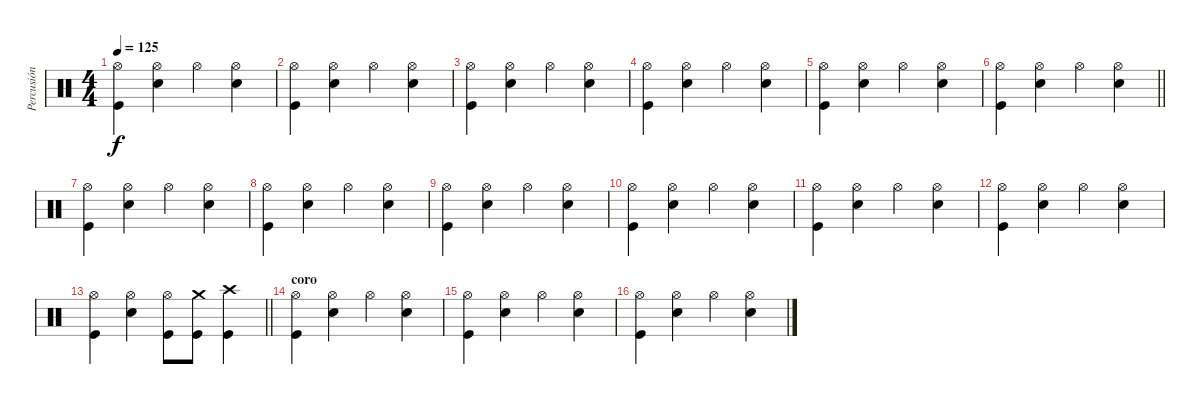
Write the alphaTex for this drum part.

\track ("Percusión" "Percusión") {instrument percussion}
\staff {score}
\articulation defaults
\ts (4 4)
\tempo 125
\clef neutral
\ks c
("Hi-Hat (open)" "Kick (hit)").4{dy f} ("Hi-Hat (open)" "Electric Snare (hit)").4 "Hi-Hat (open)".4 ("Hi-Hat (open)" "Electric Snare (hit)").4 |
("Hi-Hat (open)" "Kick (hit)").4 ("Hi-Hat (open)" "Electric Snare (hit)").4 "Hi-Hat (open)".4 ("Hi-Hat (open)" "Electric Snare (hit)").4 |
("Hi-Hat (open)" "Kick (hit)").4{volume 12} ("Hi-Hat (open)" "Electric Snare (hit)").4 "Hi-Hat (open)".4 ("Hi-Hat (open)" "Electric Snare (hit)").4 |
("Hi-Hat (open)" "Kick (hit)").4 ("Hi-Hat (open)" "Electric Snare (hit)").4 "Hi-Hat (open)".4 ("Hi-Hat (open)" "Electric Snare (hit)").4 |
("Hi-Hat (open)" "Kick (hit)").4 ("Hi-Hat (open)" "Electric Snare (hit)").4 "Hi-Hat (open)".4 ("Hi-Hat (open)" "Electric Snare (hit)").4 |
\barLineRight lightlight
("Hi-Hat (open)" "Kick (hit)").4 ("Hi-Hat (open)" "Electric Snare (hit)").4 "Hi-Hat (open)".4 ("Hi-Hat (open)" "Electric Snare (hit)").4 |
("Hi-Hat (open)" "Kick (hit)").4{volume 12} ("Hi-Hat (open)" "Electric Snare (hit)").4 "Hi-Hat (open)".4 ("Hi-Hat (open)" "Electric Snare (hit)").4 |
("Hi-Hat (open)" "Kick (hit)").4 ("Hi-Hat (open)" "Electric Snare (hit)").4 "Hi-Hat (open)".4 ("Hi-Hat (open)" "Electric Snare (hit)").4 |
("Hi-Hat (open)" "Kick (hit)").4 ("Hi-Hat (open)" "Electric Snare (hit)").4 "Hi-Hat (open)".4 ("Hi-Hat (open)" "Electric Snare (hit)").4 |
("Hi-Hat (open)" "Kick (hit)").4 ("Hi-Hat (open)" "Electric Snare (hit)").4 "Hi-Hat (open)".4 ("Hi-Hat (open)" "Electric Snare (hit)").4 |
("Hi-Hat (open)" "Kick (hit)").4{volume 12} ("Hi-Hat (open)" "Electric Snare (hit)").4 "Hi-Hat (open)".4 ("Hi-Hat (open)" "Electric Snare (hit)").4 |
("Hi-Hat (open)" "Kick (hit)").4 ("Hi-Hat (open)" "Electric Snare (hit)").4 "Hi-Hat (open)".4 ("Hi-Hat (open)" "Electric Snare (hit)").4 |
\barLineRight lightlight
("Hi-Hat (open)" "Kick (hit)").4 ("Hi-Hat (open)" "Electric Snare (hit)").4 ("Hi-Hat (open)" "Kick (hit)").8 ("Crash medium (hit)" "Kick (hit)").8 ("Crash high (hit)" "Kick (hit)").4 |
\section ("" "coro")
("Hi-Hat (open)" "Kick (hit)").4 ("Hi-Hat (open)" "Electric Snare (hit)").4 "Hi-Hat (open)".4 ("Hi-Hat (open)" "Electric Snare (hit)").4 |
("Hi-Hat (open)" "Kick (hit)").4 ("Hi-Hat (open)" "Electric Snare (hit)").4 "Hi-Hat (open)".4 ("Hi-Hat (open)" "Electric Snare (hit)").4 |
("Hi-Hat (open)" "Kick (hit)").4 ("Hi-Hat (open)" "Electric Snare (hit)").4 "Hi-Hat (open)".4 ("Hi-Hat (open)" "Electric Snare (hit)").4
